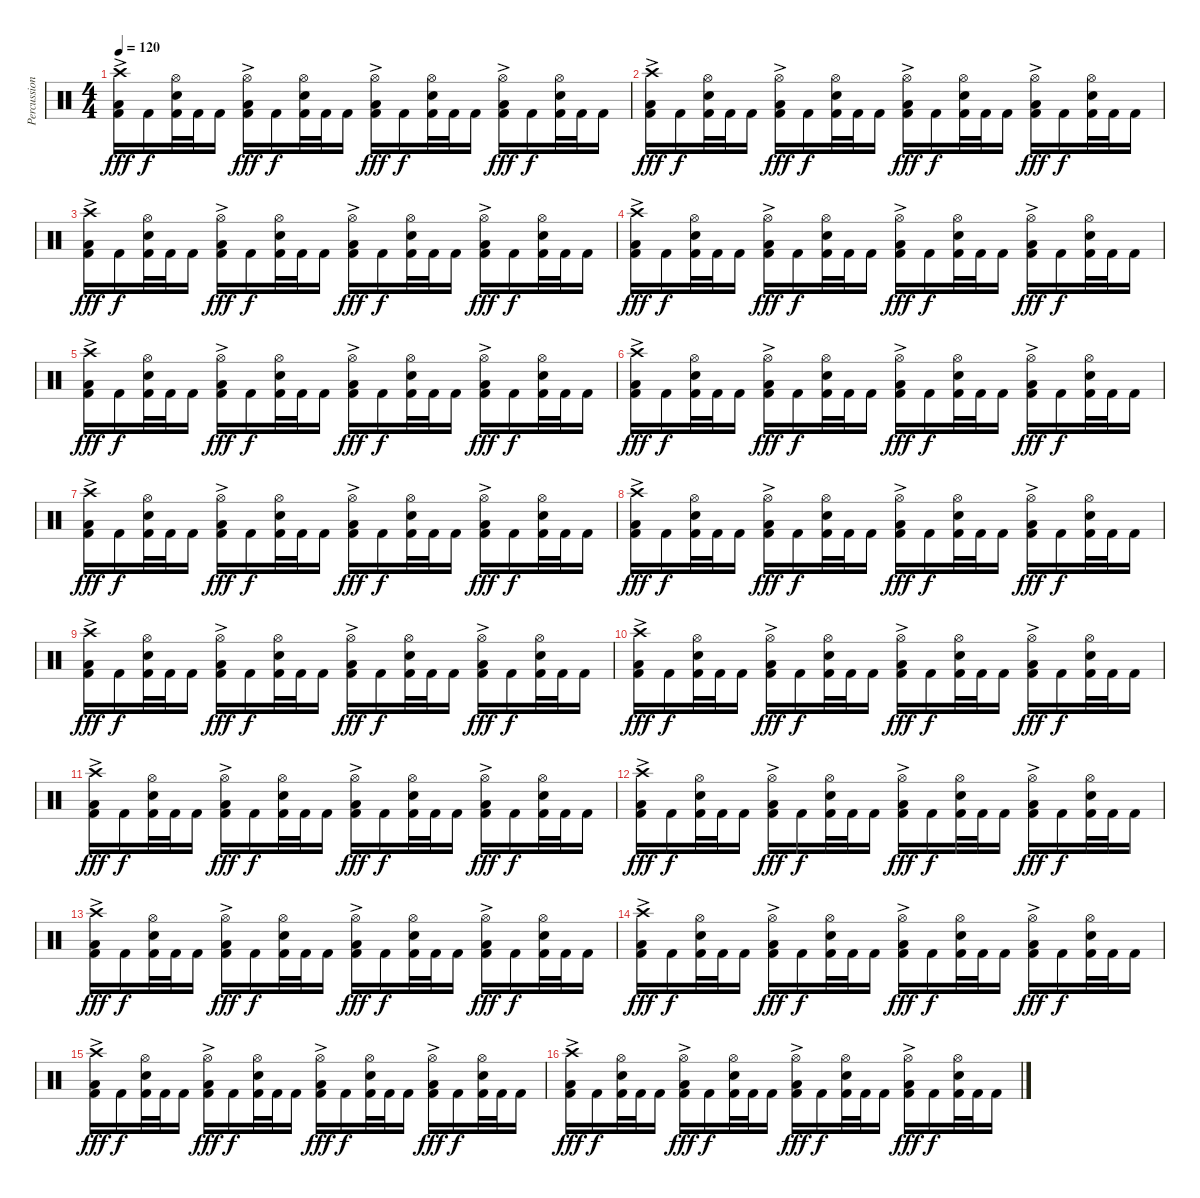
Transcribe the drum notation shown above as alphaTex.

\track ("Percussion" "Percussion") {instrument percussion}
\staff {score}
\articulation defaults
\ts (4 4)
\tempo 120
\clef neutral
\ks c
("Crash high (hit)" "Low Floor Tom (hit)"{ac} "Kick (hit) 2").16{dy fff} "Kick (hit) 2".16{dy f} ("Hi-Hat (open)" "Electric Snare (hit)" "Kick (hit) 2").32 "Kick (hit) 2".32 "Kick (hit) 2".16 ("Hi-Hat (open)" "Low Floor Tom (hit)"{ac} "Kick (hit) 2").16{dy fff} "Kick (hit) 2".16{dy f} ("Hi-Hat (open)" "Electric Snare (hit)" "Kick (hit) 2").32 "Kick (hit) 2".32 "Kick (hit) 2".16 ("Hi-Hat (open)" "Low Floor Tom (hit)"{ac} "Kick (hit) 2").16{dy fff} "Kick (hit) 2".16{dy f} ("Hi-Hat (open)" "Electric Snare (hit)" "Kick (hit) 2").32 "Kick (hit) 2".32 "Kick (hit) 2".16 ("Hi-Hat (open)" "Low Floor Tom (hit)"{ac} "Kick (hit) 2").16{dy fff} "Kick (hit) 2".16{dy f} ("Hi-Hat (open)" "Electric Snare (hit)" "Kick (hit) 2").32 "Kick (hit) 2".32 "Kick (hit) 2".16 |
("Crash high (hit)" "Low Floor Tom (hit)"{ac} "Kick (hit) 2").16{dy fff} "Kick (hit) 2".16{dy f} ("Hi-Hat (open)" "Electric Snare (hit)" "Kick (hit) 2").32 "Kick (hit) 2".32 "Kick (hit) 2".16 ("Hi-Hat (open)" "Low Floor Tom (hit)"{ac} "Kick (hit) 2").16{dy fff} "Kick (hit) 2".16{dy f} ("Hi-Hat (open)" "Electric Snare (hit)" "Kick (hit) 2").32 "Kick (hit) 2".32 "Kick (hit) 2".16 ("Hi-Hat (open)" "Low Floor Tom (hit)"{ac} "Kick (hit) 2").16{dy fff} "Kick (hit) 2".16{dy f} ("Hi-Hat (open)" "Electric Snare (hit)" "Kick (hit) 2").32 "Kick (hit) 2".32 "Kick (hit) 2".16 ("Hi-Hat (open)" "Low Floor Tom (hit)"{ac} "Kick (hit) 2").16{dy fff} "Kick (hit) 2".16{dy f} ("Hi-Hat (open)" "Electric Snare (hit)" "Kick (hit) 2").32 "Kick (hit) 2".32 "Kick (hit) 2".16 |
("Crash high (hit)" "Low Floor Tom (hit)"{ac} "Kick (hit) 2").16{dy fff} "Kick (hit) 2".16{dy f} ("Hi-Hat (open)" "Electric Snare (hit)" "Kick (hit) 2").32 "Kick (hit) 2".32 "Kick (hit) 2".16 ("Hi-Hat (open)" "Low Floor Tom (hit)"{ac} "Kick (hit) 2").16{dy fff} "Kick (hit) 2".16{dy f} ("Hi-Hat (open)" "Electric Snare (hit)" "Kick (hit) 2").32 "Kick (hit) 2".32 "Kick (hit) 2".16 ("Hi-Hat (open)" "Low Floor Tom (hit)"{ac} "Kick (hit) 2").16{dy fff} "Kick (hit) 2".16{dy f} ("Hi-Hat (open)" "Electric Snare (hit)" "Kick (hit) 2").32 "Kick (hit) 2".32 "Kick (hit) 2".16 ("Hi-Hat (open)" "Low Floor Tom (hit)"{ac} "Kick (hit) 2").16{dy fff} "Kick (hit) 2".16{dy f} ("Hi-Hat (open)" "Electric Snare (hit)" "Kick (hit) 2").32 "Kick (hit) 2".32 "Kick (hit) 2".16 |
("Crash high (hit)" "Low Floor Tom (hit)"{ac} "Kick (hit) 2").16{dy fff} "Kick (hit) 2".16{dy f} ("Hi-Hat (open)" "Electric Snare (hit)" "Kick (hit) 2").32 "Kick (hit) 2".32 "Kick (hit) 2".16 ("Hi-Hat (open)" "Low Floor Tom (hit)"{ac} "Kick (hit) 2").16{dy fff} "Kick (hit) 2".16{dy f} ("Hi-Hat (open)" "Electric Snare (hit)" "Kick (hit) 2").32 "Kick (hit) 2".32 "Kick (hit) 2".16 ("Hi-Hat (open)" "Low Floor Tom (hit)"{ac} "Kick (hit) 2").16{dy fff} "Kick (hit) 2".16{dy f} ("Hi-Hat (open)" "Electric Snare (hit)" "Kick (hit) 2").32 "Kick (hit) 2".32 "Kick (hit) 2".16 ("Hi-Hat (open)" "Low Floor Tom (hit)"{ac} "Kick (hit) 2").16{dy fff} "Kick (hit) 2".16{dy f} ("Hi-Hat (open)" "Electric Snare (hit)" "Kick (hit) 2").32 "Kick (hit) 2".32 "Kick (hit) 2".16 |
("Crash high (hit)" "Low Floor Tom (hit)"{ac} "Kick (hit) 2").16{dy fff} "Kick (hit) 2".16{dy f} ("Hi-Hat (open)" "Electric Snare (hit)" "Kick (hit) 2").32 "Kick (hit) 2".32 "Kick (hit) 2".16 ("Hi-Hat (open)" "Low Floor Tom (hit)"{ac} "Kick (hit) 2").16{dy fff} "Kick (hit) 2".16{dy f} ("Hi-Hat (open)" "Electric Snare (hit)" "Kick (hit) 2").32 "Kick (hit) 2".32 "Kick (hit) 2".16 ("Hi-Hat (open)" "Low Floor Tom (hit)"{ac} "Kick (hit) 2").16{dy fff} "Kick (hit) 2".16{dy f} ("Hi-Hat (open)" "Electric Snare (hit)" "Kick (hit) 2").32 "Kick (hit) 2".32 "Kick (hit) 2".16 ("Hi-Hat (open)" "Low Floor Tom (hit)"{ac} "Kick (hit) 2").16{dy fff} "Kick (hit) 2".16{dy f} ("Hi-Hat (open)" "Electric Snare (hit)" "Kick (hit) 2").32 "Kick (hit) 2".32 "Kick (hit) 2".16 |
("Crash high (hit)" "Low Floor Tom (hit)"{ac} "Kick (hit) 2").16{dy fff} "Kick (hit) 2".16{dy f} ("Hi-Hat (open)" "Electric Snare (hit)" "Kick (hit) 2").32 "Kick (hit) 2".32 "Kick (hit) 2".16 ("Hi-Hat (open)" "Low Floor Tom (hit)"{ac} "Kick (hit) 2").16{dy fff} "Kick (hit) 2".16{dy f} ("Hi-Hat (open)" "Electric Snare (hit)" "Kick (hit) 2").32 "Kick (hit) 2".32 "Kick (hit) 2".16 ("Hi-Hat (open)" "Low Floor Tom (hit)"{ac} "Kick (hit) 2").16{dy fff} "Kick (hit) 2".16{dy f} ("Hi-Hat (open)" "Electric Snare (hit)" "Kick (hit) 2").32 "Kick (hit) 2".32 "Kick (hit) 2".16 ("Hi-Hat (open)" "Low Floor Tom (hit)"{ac} "Kick (hit) 2").16{dy fff} "Kick (hit) 2".16{dy f} ("Hi-Hat (open)" "Electric Snare (hit)" "Kick (hit) 2").32 "Kick (hit) 2".32 "Kick (hit) 2".16 |
("Crash high (hit)" "Low Floor Tom (hit)"{ac} "Kick (hit) 2").16{dy fff} "Kick (hit) 2".16{dy f} ("Hi-Hat (open)" "Electric Snare (hit)" "Kick (hit) 2").32 "Kick (hit) 2".32 "Kick (hit) 2".16 ("Hi-Hat (open)" "Low Floor Tom (hit)"{ac} "Kick (hit) 2").16{dy fff} "Kick (hit) 2".16{dy f} ("Hi-Hat (open)" "Electric Snare (hit)" "Kick (hit) 2").32 "Kick (hit) 2".32 "Kick (hit) 2".16 ("Hi-Hat (open)" "Low Floor Tom (hit)"{ac} "Kick (hit) 2").16{dy fff} "Kick (hit) 2".16{dy f} ("Hi-Hat (open)" "Electric Snare (hit)" "Kick (hit) 2").32 "Kick (hit) 2".32 "Kick (hit) 2".16 ("Hi-Hat (open)" "Low Floor Tom (hit)"{ac} "Kick (hit) 2").16{dy fff} "Kick (hit) 2".16{dy f} ("Hi-Hat (open)" "Electric Snare (hit)" "Kick (hit) 2").32 "Kick (hit) 2".32 "Kick (hit) 2".16 |
("Crash high (hit)" "Low Floor Tom (hit)"{ac} "Kick (hit) 2").16{dy fff} "Kick (hit) 2".16{dy f} ("Hi-Hat (open)" "Electric Snare (hit)" "Kick (hit) 2").32 "Kick (hit) 2".32 "Kick (hit) 2".16 ("Hi-Hat (open)" "Low Floor Tom (hit)"{ac} "Kick (hit) 2").16{dy fff} "Kick (hit) 2".16{dy f} ("Hi-Hat (open)" "Electric Snare (hit)" "Kick (hit) 2").32 "Kick (hit) 2".32 "Kick (hit) 2".16 ("Hi-Hat (open)" "Low Floor Tom (hit)"{ac} "Kick (hit) 2").16{dy fff} "Kick (hit) 2".16{dy f} ("Hi-Hat (open)" "Electric Snare (hit)" "Kick (hit) 2").32 "Kick (hit) 2".32 "Kick (hit) 2".16 ("Hi-Hat (open)" "Low Floor Tom (hit)"{ac} "Kick (hit) 2").16{dy fff} "Kick (hit) 2".16{dy f} ("Hi-Hat (open)" "Electric Snare (hit)" "Kick (hit) 2").32 "Kick (hit) 2".32 "Kick (hit) 2".16 |
("Crash high (hit)" "Low Floor Tom (hit)"{ac} "Kick (hit) 2").16{dy fff} "Kick (hit) 2".16{dy f} ("Hi-Hat (open)" "Electric Snare (hit)" "Kick (hit) 2").32 "Kick (hit) 2".32 "Kick (hit) 2".16 ("Hi-Hat (open)" "Low Floor Tom (hit)"{ac} "Kick (hit) 2").16{dy fff} "Kick (hit) 2".16{dy f} ("Hi-Hat (open)" "Electric Snare (hit)" "Kick (hit) 2").32 "Kick (hit) 2".32 "Kick (hit) 2".16 ("Hi-Hat (open)" "Low Floor Tom (hit)"{ac} "Kick (hit) 2").16{dy fff} "Kick (hit) 2".16{dy f} ("Hi-Hat (open)" "Electric Snare (hit)" "Kick (hit) 2").32 "Kick (hit) 2".32 "Kick (hit) 2".16 ("Hi-Hat (open)" "Low Floor Tom (hit)"{ac} "Kick (hit) 2").16{dy fff} "Kick (hit) 2".16{dy f} ("Hi-Hat (open)" "Electric Snare (hit)" "Kick (hit) 2").32 "Kick (hit) 2".32 "Kick (hit) 2".16 |
("Crash high (hit)" "Low Floor Tom (hit)"{ac} "Kick (hit) 2").16{dy fff} "Kick (hit) 2".16{dy f} ("Hi-Hat (open)" "Electric Snare (hit)" "Kick (hit) 2").32 "Kick (hit) 2".32 "Kick (hit) 2".16 ("Hi-Hat (open)" "Low Floor Tom (hit)"{ac} "Kick (hit) 2").16{dy fff} "Kick (hit) 2".16{dy f} ("Hi-Hat (open)" "Electric Snare (hit)" "Kick (hit) 2").32 "Kick (hit) 2".32 "Kick (hit) 2".16 ("Hi-Hat (open)" "Low Floor Tom (hit)"{ac} "Kick (hit) 2").16{dy fff} "Kick (hit) 2".16{dy f} ("Hi-Hat (open)" "Electric Snare (hit)" "Kick (hit) 2").32 "Kick (hit) 2".32 "Kick (hit) 2".16 ("Hi-Hat (open)" "Low Floor Tom (hit)"{ac} "Kick (hit) 2").16{dy fff} "Kick (hit) 2".16{dy f} ("Hi-Hat (open)" "Electric Snare (hit)" "Kick (hit) 2").32 "Kick (hit) 2".32 "Kick (hit) 2".16 |
("Crash high (hit)" "Low Floor Tom (hit)"{ac} "Kick (hit) 2").16{dy fff} "Kick (hit) 2".16{dy f} ("Hi-Hat (open)" "Electric Snare (hit)" "Kick (hit) 2").32 "Kick (hit) 2".32 "Kick (hit) 2".16 ("Hi-Hat (open)" "Low Floor Tom (hit)"{ac} "Kick (hit) 2").16{dy fff} "Kick (hit) 2".16{dy f} ("Hi-Hat (open)" "Electric Snare (hit)" "Kick (hit) 2").32 "Kick (hit) 2".32 "Kick (hit) 2".16 ("Hi-Hat (open)" "Low Floor Tom (hit)"{ac} "Kick (hit) 2").16{dy fff} "Kick (hit) 2".16{dy f} ("Hi-Hat (open)" "Electric Snare (hit)" "Kick (hit) 2").32 "Kick (hit) 2".32 "Kick (hit) 2".16 ("Hi-Hat (open)" "Low Floor Tom (hit)"{ac} "Kick (hit) 2").16{dy fff} "Kick (hit) 2".16{dy f} ("Hi-Hat (open)" "Electric Snare (hit)" "Kick (hit) 2").32 "Kick (hit) 2".32 "Kick (hit) 2".16 |
("Crash high (hit)" "Low Floor Tom (hit)"{ac} "Kick (hit) 2").16{dy fff} "Kick (hit) 2".16{dy f} ("Hi-Hat (open)" "Electric Snare (hit)" "Kick (hit) 2").32 "Kick (hit) 2".32 "Kick (hit) 2".16 ("Hi-Hat (open)" "Low Floor Tom (hit)"{ac} "Kick (hit) 2").16{dy fff} "Kick (hit) 2".16{dy f} ("Hi-Hat (open)" "Electric Snare (hit)" "Kick (hit) 2").32 "Kick (hit) 2".32 "Kick (hit) 2".16 ("Hi-Hat (open)" "Low Floor Tom (hit)"{ac} "Kick (hit) 2").16{dy fff} "Kick (hit) 2".16{dy f} ("Hi-Hat (open)" "Electric Snare (hit)" "Kick (hit) 2").32 "Kick (hit) 2".32 "Kick (hit) 2".16 ("Hi-Hat (open)" "Low Floor Tom (hit)"{ac} "Kick (hit) 2").16{dy fff} "Kick (hit) 2".16{dy f} ("Hi-Hat (open)" "Electric Snare (hit)" "Kick (hit) 2").32 "Kick (hit) 2".32 "Kick (hit) 2".16 |
("Crash high (hit)" "Low Floor Tom (hit)"{ac} "Kick (hit) 2").16{dy fff} "Kick (hit) 2".16{dy f} ("Hi-Hat (open)" "Electric Snare (hit)" "Kick (hit) 2").32 "Kick (hit) 2".32 "Kick (hit) 2".16 ("Hi-Hat (open)" "Low Floor Tom (hit)"{ac} "Kick (hit) 2").16{dy fff} "Kick (hit) 2".16{dy f} ("Hi-Hat (open)" "Electric Snare (hit)" "Kick (hit) 2").32 "Kick (hit) 2".32 "Kick (hit) 2".16 ("Hi-Hat (open)" "Low Floor Tom (hit)"{ac} "Kick (hit) 2").16{dy fff} "Kick (hit) 2".16{dy f} ("Hi-Hat (open)" "Electric Snare (hit)" "Kick (hit) 2").32 "Kick (hit) 2".32 "Kick (hit) 2".16 ("Hi-Hat (open)" "Low Floor Tom (hit)"{ac} "Kick (hit) 2").16{dy fff} "Kick (hit) 2".16{dy f} ("Hi-Hat (open)" "Electric Snare (hit)" "Kick (hit) 2").32 "Kick (hit) 2".32 "Kick (hit) 2".16 |
("Crash high (hit)" "Low Floor Tom (hit)"{ac} "Kick (hit) 2").16{dy fff} "Kick (hit) 2".16{dy f} ("Hi-Hat (open)" "Electric Snare (hit)" "Kick (hit) 2").32 "Kick (hit) 2".32 "Kick (hit) 2".16 ("Hi-Hat (open)" "Low Floor Tom (hit)"{ac} "Kick (hit) 2").16{dy fff} "Kick (hit) 2".16{dy f} ("Hi-Hat (open)" "Electric Snare (hit)" "Kick (hit) 2").32 "Kick (hit) 2".32 "Kick (hit) 2".16 ("Hi-Hat (open)" "Low Floor Tom (hit)"{ac} "Kick (hit) 2").16{dy fff} "Kick (hit) 2".16{dy f} ("Hi-Hat (open)" "Electric Snare (hit)" "Kick (hit) 2").32 "Kick (hit) 2".32 "Kick (hit) 2".16 ("Hi-Hat (open)" "Low Floor Tom (hit)"{ac} "Kick (hit) 2").16{dy fff} "Kick (hit) 2".16{dy f} ("Hi-Hat (open)" "Electric Snare (hit)" "Kick (hit) 2").32 "Kick (hit) 2".32 "Kick (hit) 2".16 |
("Crash high (hit)" "Low Floor Tom (hit)"{ac} "Kick (hit) 2").16{dy fff} "Kick (hit) 2".16{dy f} ("Hi-Hat (open)" "Electric Snare (hit)" "Kick (hit) 2").32 "Kick (hit) 2".32 "Kick (hit) 2".16 ("Hi-Hat (open)" "Low Floor Tom (hit)"{ac} "Kick (hit) 2").16{dy fff} "Kick (hit) 2".16{dy f} ("Hi-Hat (open)" "Electric Snare (hit)" "Kick (hit) 2").32 "Kick (hit) 2".32 "Kick (hit) 2".16 ("Hi-Hat (open)" "Low Floor Tom (hit)"{ac} "Kick (hit) 2").16{dy fff} "Kick (hit) 2".16{dy f} ("Hi-Hat (open)" "Electric Snare (hit)" "Kick (hit) 2").32 "Kick (hit) 2".32 "Kick (hit) 2".16 ("Hi-Hat (open)" "Low Floor Tom (hit)"{ac} "Kick (hit) 2").16{dy fff} "Kick (hit) 2".16{dy f} ("Hi-Hat (open)" "Electric Snare (hit)" "Kick (hit) 2").32 "Kick (hit) 2".32 "Kick (hit) 2".16 |
("Crash high (hit)" "Low Floor Tom (hit)"{ac} "Kick (hit) 2").16{dy fff} "Kick (hit) 2".16{dy f} ("Hi-Hat (open)" "Electric Snare (hit)" "Kick (hit) 2").32 "Kick (hit) 2".32 "Kick (hit) 2".16 ("Hi-Hat (open)" "Low Floor Tom (hit)"{ac} "Kick (hit) 2").16{dy fff} "Kick (hit) 2".16{dy f} ("Hi-Hat (open)" "Electric Snare (hit)" "Kick (hit) 2").32 "Kick (hit) 2".32 "Kick (hit) 2".16 ("Hi-Hat (open)" "Low Floor Tom (hit)"{ac} "Kick (hit) 2").16{dy fff} "Kick (hit) 2".16{dy f} ("Hi-Hat (open)" "Electric Snare (hit)" "Kick (hit) 2").32 "Kick (hit) 2".32 "Kick (hit) 2".16 ("Hi-Hat (open)" "Low Floor Tom (hit)"{ac} "Kick (hit) 2").16{dy fff} "Kick (hit) 2".16{dy f} ("Hi-Hat (open)" "Electric Snare (hit)" "Kick (hit) 2").32 "Kick (hit) 2".32 "Kick (hit) 2".16
